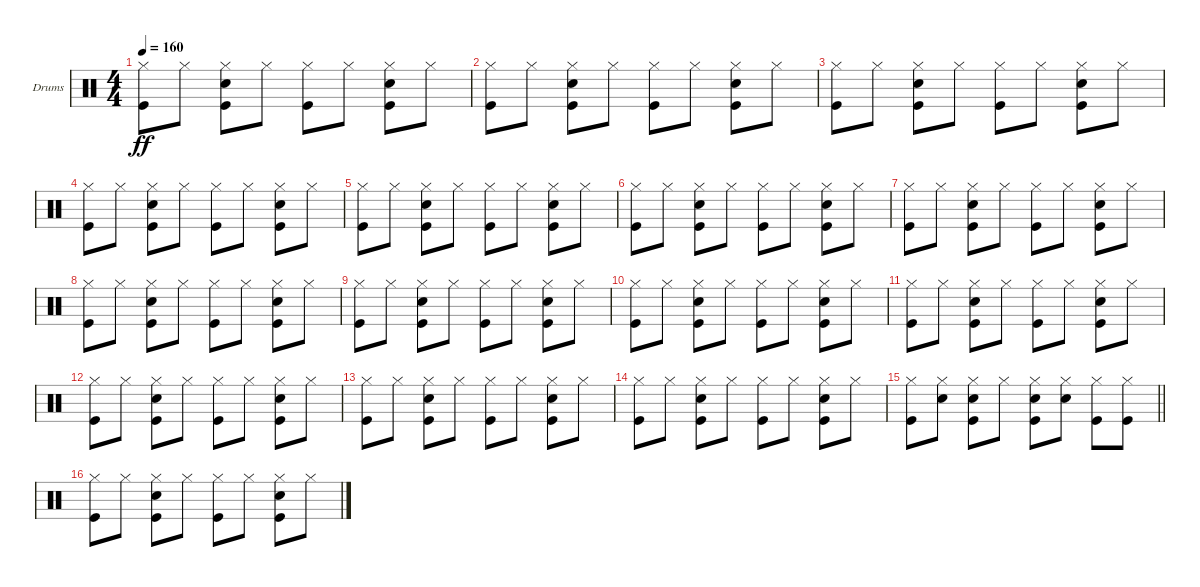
\bracketExtendMode groupsimilarinstruments
\firstSystemTrackNameOrientation horizontal
\otherSystemsTrackNameOrientation horizontal
\track ("Ударные" "Drums") {instrument percussion}
\staff {score}
\articulation defaults
\ts (4 4)
\tempo 160
\clef neutral
\ks c
("Hi-Hat (closed)" "Kick (hit)").8{dy ff} "Hi-Hat (closed)".8 ("Hi-Hat (closed)" "Snare (hit) 2" "Kick (hit)").8 "Hi-Hat (closed)".8 ("Hi-Hat (closed)" "Kick (hit)").8 "Hi-Hat (closed)".8 ("Hi-Hat (closed)" "Snare (hit) 2" "Kick (hit)").8 "Hi-Hat (closed)".8 |
("Hi-Hat (closed)" "Kick (hit)").8 "Hi-Hat (closed)".8 ("Hi-Hat (closed)" "Snare (hit) 2" "Kick (hit)").8 "Hi-Hat (closed)".8 ("Hi-Hat (closed)" "Kick (hit)").8 "Hi-Hat (closed)".8 ("Hi-Hat (closed)" "Snare (hit) 2" "Kick (hit)").8 "Hi-Hat (closed)".8 |
("Hi-Hat (closed)" "Kick (hit)").8 "Hi-Hat (closed)".8 ("Hi-Hat (closed)" "Snare (hit) 2" "Kick (hit)").8 "Hi-Hat (closed)".8 ("Hi-Hat (closed)" "Kick (hit)").8 "Hi-Hat (closed)".8 ("Hi-Hat (closed)" "Snare (hit) 2" "Kick (hit)").8 "Hi-Hat (closed)".8 |
("Hi-Hat (closed)" "Kick (hit)").8 "Hi-Hat (closed)".8 ("Hi-Hat (closed)" "Snare (hit) 2" "Kick (hit)").8 "Hi-Hat (closed)".8 ("Hi-Hat (closed)" "Kick (hit)").8 "Hi-Hat (closed)".8 ("Hi-Hat (closed)" "Snare (hit) 2" "Kick (hit)").8 "Hi-Hat (closed)".8 |
("Hi-Hat (closed)" "Kick (hit)").8 "Hi-Hat (closed)".8 ("Hi-Hat (closed)" "Snare (hit) 2" "Kick (hit)").8 "Hi-Hat (closed)".8 ("Hi-Hat (closed)" "Kick (hit)").8 "Hi-Hat (closed)".8 ("Hi-Hat (closed)" "Snare (hit) 2" "Kick (hit)").8 "Hi-Hat (closed)".8 |
("Hi-Hat (closed)" "Kick (hit)").8 "Hi-Hat (closed)".8 ("Hi-Hat (closed)" "Snare (hit) 2" "Kick (hit)").8 "Hi-Hat (closed)".8 ("Hi-Hat (closed)" "Kick (hit)").8 "Hi-Hat (closed)".8 ("Hi-Hat (closed)" "Snare (hit) 2" "Kick (hit)").8 "Hi-Hat (closed)".8 |
("Hi-Hat (closed)" "Kick (hit)").8 "Hi-Hat (closed)".8 ("Hi-Hat (closed)" "Snare (hit) 2" "Kick (hit)").8 "Hi-Hat (closed)".8 ("Hi-Hat (closed)" "Kick (hit)").8 "Hi-Hat (closed)".8 ("Hi-Hat (closed)" "Snare (hit) 2" "Kick (hit)").8 "Hi-Hat (closed)".8 |
("Hi-Hat (closed)" "Kick (hit)").8 "Hi-Hat (closed)".8 ("Hi-Hat (closed)" "Snare (hit) 2" "Kick (hit)").8 "Hi-Hat (closed)".8 ("Hi-Hat (closed)" "Kick (hit)").8 "Hi-Hat (closed)".8 ("Hi-Hat (closed)" "Snare (hit) 2" "Kick (hit)").8 "Hi-Hat (closed)".8 |
("Hi-Hat (closed)" "Kick (hit)").8 "Hi-Hat (closed)".8 ("Hi-Hat (closed)" "Snare (hit) 2" "Kick (hit)").8 "Hi-Hat (closed)".8 ("Hi-Hat (closed)" "Kick (hit)").8 "Hi-Hat (closed)".8 ("Hi-Hat (closed)" "Snare (hit) 2" "Kick (hit)").8 "Hi-Hat (closed)".8 |
("Hi-Hat (closed)" "Kick (hit)").8 "Hi-Hat (closed)".8 ("Hi-Hat (closed)" "Snare (hit) 2" "Kick (hit)").8 "Hi-Hat (closed)".8 ("Hi-Hat (closed)" "Kick (hit)").8 "Hi-Hat (closed)".8 ("Hi-Hat (closed)" "Snare (hit) 2" "Kick (hit)").8 "Hi-Hat (closed)".8 |
("Hi-Hat (closed)" "Kick (hit)").8 "Hi-Hat (closed)".8 ("Hi-Hat (closed)" "Snare (hit) 2" "Kick (hit)").8 "Hi-Hat (closed)".8 ("Hi-Hat (closed)" "Kick (hit)").8 "Hi-Hat (closed)".8 ("Hi-Hat (closed)" "Snare (hit) 2" "Kick (hit)").8 "Hi-Hat (closed)".8 |
("Hi-Hat (closed)" "Kick (hit)").8 "Hi-Hat (closed)".8 ("Hi-Hat (closed)" "Snare (hit) 2" "Kick (hit)").8 "Hi-Hat (closed)".8 ("Hi-Hat (closed)" "Kick (hit)").8 "Hi-Hat (closed)".8 ("Hi-Hat (closed)" "Snare (hit) 2" "Kick (hit)").8 "Hi-Hat (closed)".8 |
("Hi-Hat (closed)" "Kick (hit)").8 "Hi-Hat (closed)".8 ("Hi-Hat (closed)" "Snare (hit) 2" "Kick (hit)").8 "Hi-Hat (closed)".8 ("Hi-Hat (closed)" "Kick (hit)").8 "Hi-Hat (closed)".8 ("Hi-Hat (closed)" "Snare (hit) 2" "Kick (hit)").8 "Hi-Hat (closed)".8 |
("Hi-Hat (closed)" "Kick (hit)").8 "Hi-Hat (closed)".8 ("Hi-Hat (closed)" "Snare (hit) 2" "Kick (hit)").8 "Hi-Hat (closed)".8 ("Hi-Hat (closed)" "Kick (hit)").8 "Hi-Hat (closed)".8 ("Hi-Hat (closed)" "Snare (hit) 2" "Kick (hit)").8 "Hi-Hat (closed)".8 |
\barLineRight lightlight
("Hi-Hat (closed)" "Kick (hit)").8 ("Hi-Hat (closed)" "Snare (hit) 2").8 ("Hi-Hat (closed)" "Snare (hit) 2" "Kick (hit)").8 "Hi-Hat (closed)".8 ("Hi-Hat (closed)" "Snare (hit) 2" "Kick (hit)").8 ("Hi-Hat (closed)" "Snare (hit) 2").8 ("Hi-Hat (closed)" "Kick (hit)").8 ("Hi-Hat (closed)" "Kick (hit)").8 |
("Hi-Hat (closed)" "Kick (hit)").8 "Hi-Hat (closed)".8 ("Hi-Hat (closed)" "Snare (hit) 2" "Kick (hit)").8 "Hi-Hat (closed)".8 ("Hi-Hat (closed)" "Kick (hit)").8 "Hi-Hat (closed)".8 ("Hi-Hat (closed)" "Snare (hit) 2" "Kick (hit)").8 "Hi-Hat (closed)".8
